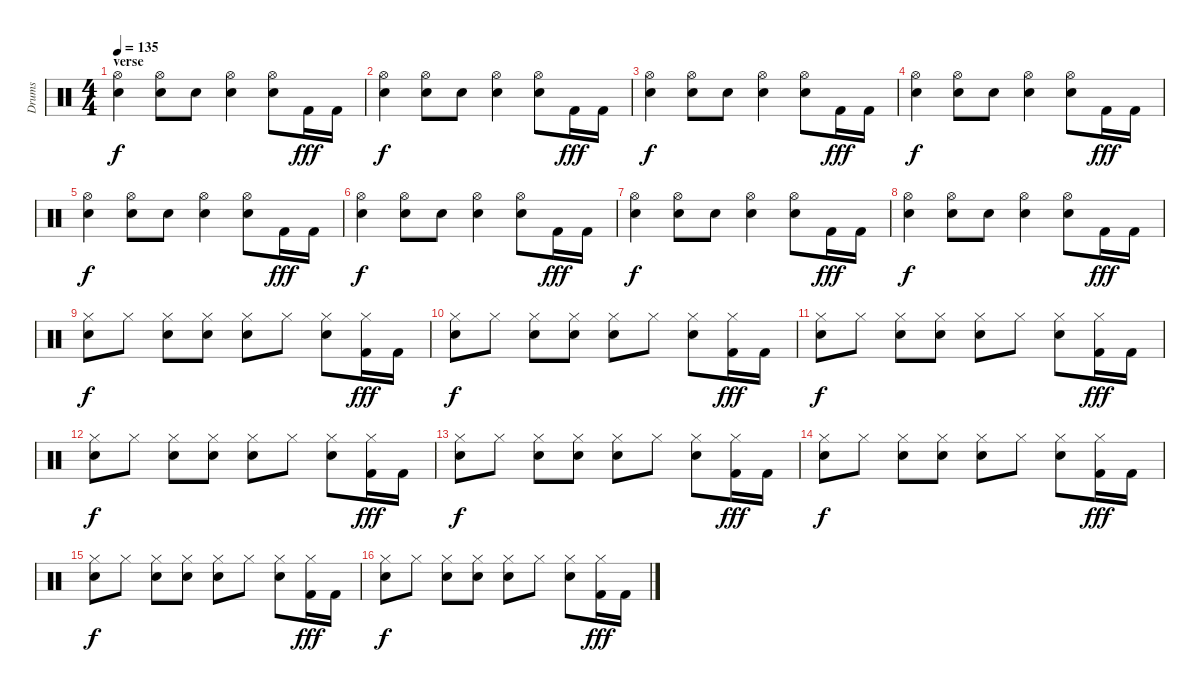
\track ("Drums" "Drums") {instrument percussion}
\staff {score}
\articulation defaults
\ts (4 4)
\section ("" "verse")
\tempo 135
\clef neutral
\ks c
("Electric Snare (hit)" "Hi-Hat (open)").4{dy f} ("Electric Snare (hit)" "Hi-Hat (open)").8 "Snare (hit) 2".8 ("Hi-Hat (open)" "Electric Snare (hit)").4 ("Electric Snare (hit)" "Hi-Hat (open)").8 "Kick (hit) 2".16{dy fff} "Kick (hit) 2".16 |
("Electric Snare (hit)" "Hi-Hat (open)").4{dy f} ("Electric Snare (hit)" "Hi-Hat (open)").8 "Snare (hit) 2".8 ("Hi-Hat (open)" "Electric Snare (hit)").4 ("Electric Snare (hit)" "Hi-Hat (open)").8 "Kick (hit) 2".16{dy fff} "Kick (hit) 2".16 |
("Electric Snare (hit)" "Hi-Hat (open)").4{dy f} ("Electric Snare (hit)" "Hi-Hat (open)").8 "Snare (hit) 2".8 ("Hi-Hat (open)" "Electric Snare (hit)").4 ("Electric Snare (hit)" "Hi-Hat (open)").8 "Kick (hit) 2".16{dy fff} "Kick (hit) 2".16 |
("Electric Snare (hit)" "Hi-Hat (open)").4{dy f} ("Electric Snare (hit)" "Hi-Hat (open)").8 "Snare (hit) 2".8 ("Hi-Hat (open)" "Electric Snare (hit)").4 ("Electric Snare (hit)" "Hi-Hat (open)").8 "Kick (hit) 2".16{dy fff} "Kick (hit) 2".16 |
("Electric Snare (hit)" "Hi-Hat (open)").4{dy f} ("Electric Snare (hit)" "Hi-Hat (open)").8 "Snare (hit) 2".8 ("Hi-Hat (open)" "Electric Snare (hit)").4 ("Electric Snare (hit)" "Hi-Hat (open)").8 "Kick (hit) 2".16{dy fff} "Kick (hit) 2".16 |
("Electric Snare (hit)" "Hi-Hat (open)").4{dy f} ("Electric Snare (hit)" "Hi-Hat (open)").8 "Snare (hit) 2".8 ("Hi-Hat (open)" "Electric Snare (hit)").4 ("Electric Snare (hit)" "Hi-Hat (open)").8 "Kick (hit) 2".16{dy fff} "Kick (hit) 2".16 |
("Electric Snare (hit)" "Hi-Hat (open)").4{dy f} ("Electric Snare (hit)" "Hi-Hat (open)").8 "Snare (hit) 2".8 ("Hi-Hat (open)" "Electric Snare (hit)").4 ("Electric Snare (hit)" "Hi-Hat (open)").8 "Kick (hit) 2".16{dy fff} "Kick (hit) 2".16 |
("Electric Snare (hit)" "Hi-Hat (open)").4{dy f} ("Electric Snare (hit)" "Hi-Hat (open)").8 "Snare (hit) 2".8 ("Hi-Hat (open)" "Electric Snare (hit)").4 ("Electric Snare (hit)" "Hi-Hat (open)").8 "Kick (hit) 2".16{dy fff} "Kick (hit) 2".16 |
("Hi-Hat (closed)" "Electric Snare (hit)").8{dy f} "Hi-Hat (closed)".8 ("Hi-Hat (closed)" "Electric Snare (hit)").8 ("Hi-Hat (closed)" "Snare (hit) 2").8 ("Hi-Hat (closed)" "Electric Snare (hit)").8 "Hi-Hat (closed)".8 ("Hi-Hat (closed)" "Electric Snare (hit)").8 ("Hi-Hat (closed)" "Kick (hit) 2").16{dy fff} "Kick (hit) 2".16 |
("Hi-Hat (closed)" "Electric Snare (hit)").8{dy f} "Hi-Hat (closed)".8 ("Hi-Hat (closed)" "Electric Snare (hit)").8 ("Hi-Hat (closed)" "Snare (hit) 2").8 ("Hi-Hat (closed)" "Electric Snare (hit)").8 "Hi-Hat (closed)".8 ("Hi-Hat (closed)" "Electric Snare (hit)").8 ("Hi-Hat (closed)" "Kick (hit) 2").16{dy fff} "Kick (hit) 2".16 |
("Hi-Hat (closed)" "Electric Snare (hit)").8{dy f} "Hi-Hat (closed)".8 ("Hi-Hat (closed)" "Electric Snare (hit)").8 ("Hi-Hat (closed)" "Snare (hit) 2").8 ("Hi-Hat (closed)" "Electric Snare (hit)").8 "Hi-Hat (closed)".8 ("Hi-Hat (closed)" "Electric Snare (hit)").8 ("Hi-Hat (closed)" "Kick (hit) 2").16{dy fff} "Kick (hit) 2".16 |
("Hi-Hat (closed)" "Electric Snare (hit)").8{dy f} "Hi-Hat (closed)".8 ("Hi-Hat (closed)" "Electric Snare (hit)").8 ("Hi-Hat (closed)" "Snare (hit) 2").8 ("Hi-Hat (closed)" "Electric Snare (hit)").8 "Hi-Hat (closed)".8 ("Hi-Hat (closed)" "Electric Snare (hit)").8 ("Hi-Hat (closed)" "Kick (hit) 2").16{dy fff} "Kick (hit) 2".16 |
("Hi-Hat (closed)" "Electric Snare (hit)").8{dy f} "Hi-Hat (closed)".8 ("Hi-Hat (closed)" "Electric Snare (hit)").8 ("Hi-Hat (closed)" "Snare (hit) 2").8 ("Hi-Hat (closed)" "Electric Snare (hit)").8 "Hi-Hat (closed)".8 ("Hi-Hat (closed)" "Electric Snare (hit)").8 ("Hi-Hat (closed)" "Kick (hit) 2").16{dy fff} "Kick (hit) 2".16 |
("Hi-Hat (closed)" "Electric Snare (hit)").8{dy f} "Hi-Hat (closed)".8 ("Hi-Hat (closed)" "Electric Snare (hit)").8 ("Hi-Hat (closed)" "Snare (hit) 2").8 ("Hi-Hat (closed)" "Electric Snare (hit)").8 "Hi-Hat (closed)".8 ("Hi-Hat (closed)" "Electric Snare (hit)").8 ("Hi-Hat (closed)" "Kick (hit) 2").16{dy fff} "Kick (hit) 2".16 |
("Hi-Hat (closed)" "Electric Snare (hit)").8{dy f} "Hi-Hat (closed)".8 ("Hi-Hat (closed)" "Electric Snare (hit)").8 ("Hi-Hat (closed)" "Snare (hit) 2").8 ("Hi-Hat (closed)" "Electric Snare (hit)").8 "Hi-Hat (closed)".8 ("Hi-Hat (closed)" "Electric Snare (hit)").8 ("Hi-Hat (closed)" "Kick (hit) 2").16{dy fff} "Kick (hit) 2".16 |
("Hi-Hat (closed)" "Electric Snare (hit)").8{dy f} "Hi-Hat (closed)".8 ("Hi-Hat (closed)" "Electric Snare (hit)").8 ("Hi-Hat (closed)" "Snare (hit) 2").8 ("Hi-Hat (closed)" "Electric Snare (hit)").8 "Hi-Hat (closed)".8 ("Hi-Hat (closed)" "Electric Snare (hit)").8 ("Hi-Hat (closed)" "Kick (hit) 2").16{dy fff} "Kick (hit) 2".16
